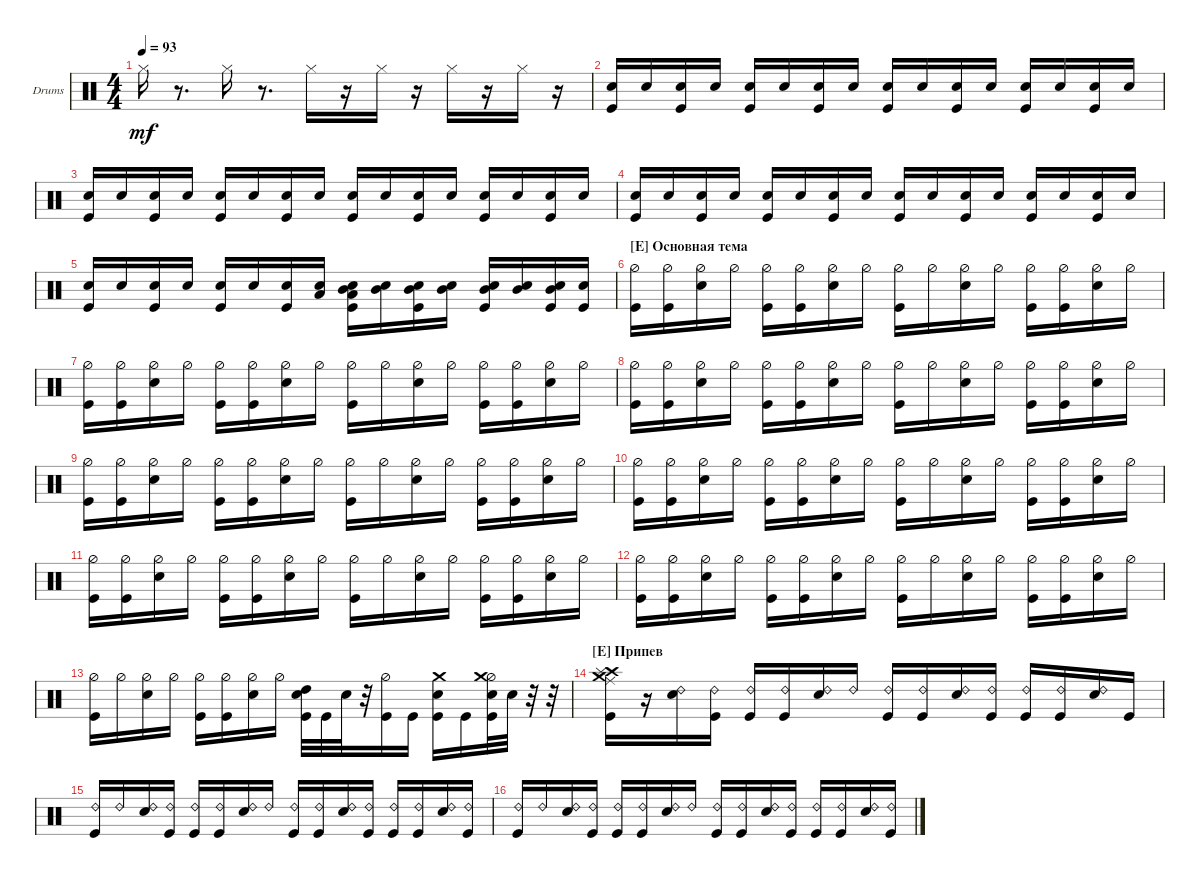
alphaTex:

\defaultSystemsLayout 4
\bracketExtendMode groupsimilarinstruments
\firstSystemTrackNameOrientation horizontal
\otherSystemsTrackNameOrientation horizontal
\track ("Drumkit" "Drums") {instrument percussion}
\staff {score}
\articulation defaults
\ts (4 4)
\tempo 93
\clef neutral
\ks c "Hi-Hat (closed)".16{dy mf}
r.8{d} "Hi-Hat (closed)".16 r.8{d} "Hi-Hat (closed)".16 r.16 "Hi-Hat (closed)".16 r.16 "Hi-Hat (closed)".16 r.16 "Hi-Hat (closed)".16 r.16 |
("Snare (hit) 2" "Kick (hit)").16 "Snare (hit) 2".16 ("Snare (hit) 2" "Kick (hit)").16 "Snare (hit) 2".16 ("Snare (hit) 2" "Kick (hit)").16 "Snare (hit) 2".16 ("Snare (hit) 2" "Kick (hit)").16 "Snare (hit) 2".16 ("Snare (hit) 2" "Kick (hit)").16 "Snare (hit) 2".16 ("Snare (hit) 2" "Kick (hit)").16 "Snare (hit) 2".16 ("Snare (hit) 2" "Kick (hit)").16 "Snare (hit) 2".16 ("Snare (hit) 2" "Kick (hit)").16 "Snare (hit) 2".16 |
("Snare (hit) 2" "Kick (hit)").16 "Snare (hit) 2".16 ("Snare (hit) 2" "Kick (hit)").16 "Snare (hit) 2".16 ("Snare (hit) 2" "Kick (hit)").16 "Snare (hit) 2".16 ("Snare (hit) 2" "Kick (hit)").16 "Snare (hit) 2".16 ("Snare (hit) 2" "Kick (hit)").16 "Snare (hit) 2".16 ("Snare (hit) 2" "Kick (hit)").16 "Snare (hit) 2".16 ("Snare (hit) 2" "Kick (hit)").16 "Snare (hit) 2".16 ("Snare (hit) 2" "Kick (hit)").16 "Snare (hit) 2".16 |
("Snare (hit) 2" "Kick (hit)").16 "Snare (hit) 2".16 ("Snare (hit) 2" "Kick (hit)").16 "Snare (hit) 2".16 ("Snare (hit) 2" "Kick (hit)").16 "Snare (hit) 2".16 ("Snare (hit) 2" "Kick (hit)").16 "Snare (hit) 2".16 ("Snare (hit) 2" "Kick (hit)").16 "Snare (hit) 2".16 ("Snare (hit) 2" "Kick (hit)").16 "Snare (hit) 2".16 ("Snare (hit) 2" "Kick (hit)").16 "Snare (hit) 2".16 ("Snare (hit) 2" "Kick (hit)").16 "Snare (hit) 2".16 |
("Snare (hit) 2" "Kick (hit)").16 "Snare (hit) 2".16 ("Snare (hit) 2" "Kick (hit)").16 "Snare (hit) 2".16 ("Snare (hit) 2" "Kick (hit)").16 "Snare (hit) 2".16 ("Snare (hit) 2" "Kick (hit)").16 ("Snare (hit) 2" "Low Tom (hit)").16 ("Snare (hit) 2" "Kick (hit)" "Low Tom (hit)" "Mid Tom (hit)").16 ("Snare (hit) 2" "Mid Tom (hit)").16 ("Kick (hit)" "Snare (hit) 2" "Mid Tom (hit)").16 ("Snare (hit) 2" "Mid Tom (hit)").16 ("Kick (hit)" "Snare (hit) 2" "Mid Tom (hit)").16 ("Snare (hit) 2" "Mid Tom (hit)").16 ("Snare (hit) 2" "Kick (hit)" "Mid Tom (hit)").16 ("Snare (hit) 2" "Kick (hit)").16 |
\section ("E" "Основная тема")
("Kick (hit)" "Hi-Hat (half)").16 ("Hi-Hat (half)" "Kick (hit)").16 ("Snare (hit) 2" "Hi-Hat (half)").16 "Hi-Hat (half)".16 ("Kick (hit)" "Hi-Hat (half)").16 ("Kick (hit)" "Hi-Hat (half)").16 ("Snare (hit) 2" "Hi-Hat (half)").16 "Hi-Hat (half)".16 ("Kick (hit)" "Hi-Hat (half)").16 "Hi-Hat (half)".16 ("Snare (hit) 2" "Hi-Hat (half)").16 "Hi-Hat (half)".16 ("Kick (hit)" "Hi-Hat (half)").16 ("Kick (hit)" "Hi-Hat (half)").16 ("Snare (hit) 2" "Hi-Hat (half)").16 "Hi-Hat (half)".16 |
("Kick (hit)" "Hi-Hat (half)").16 ("Hi-Hat (half)" "Kick (hit)").16 ("Snare (hit) 2" "Hi-Hat (half)").16 "Hi-Hat (half)".16 ("Kick (hit)" "Hi-Hat (half)").16 ("Kick (hit)" "Hi-Hat (half)").16 ("Snare (hit) 2" "Hi-Hat (half)").16 "Hi-Hat (half)".16 ("Kick (hit)" "Hi-Hat (half)").16 "Hi-Hat (half)".16 ("Snare (hit) 2" "Hi-Hat (half)").16 "Hi-Hat (half)".16 ("Kick (hit)" "Hi-Hat (half)").16 ("Kick (hit)" "Hi-Hat (half)").16 ("Snare (hit) 2" "Hi-Hat (half)").16 "Hi-Hat (half)".16 |
("Kick (hit)" "Hi-Hat (half)").16 ("Hi-Hat (half)" "Kick (hit)").16 ("Snare (hit) 2" "Hi-Hat (half)").16 "Hi-Hat (half)".16 ("Kick (hit)" "Hi-Hat (half)").16 ("Kick (hit)" "Hi-Hat (half)").16 ("Snare (hit) 2" "Hi-Hat (half)").16 "Hi-Hat (half)".16 ("Kick (hit)" "Hi-Hat (half)").16 "Hi-Hat (half)".16 ("Snare (hit) 2" "Hi-Hat (half)").16 "Hi-Hat (half)".16 ("Kick (hit)" "Hi-Hat (half)").16 ("Kick (hit)" "Hi-Hat (half)").16 ("Snare (hit) 2" "Hi-Hat (half)").16 "Hi-Hat (half)".16 |
("Kick (hit)" "Hi-Hat (half)").16 ("Hi-Hat (half)" "Kick (hit)").16 ("Snare (hit) 2" "Hi-Hat (half)").16 "Hi-Hat (half)".16 ("Kick (hit)" "Hi-Hat (half)").16 ("Kick (hit)" "Hi-Hat (half)").16 ("Snare (hit) 2" "Hi-Hat (half)").16 "Hi-Hat (half)".16 ("Kick (hit)" "Hi-Hat (half)").16 "Hi-Hat (half)".16 ("Snare (hit) 2" "Hi-Hat (half)").16 "Hi-Hat (half)".16 ("Kick (hit)" "Hi-Hat (half)").16 ("Kick (hit)" "Hi-Hat (half)").16 ("Snare (hit) 2" "Hi-Hat (half)").16 "Hi-Hat (half)".16 |
("Kick (hit)" "Hi-Hat (half)").16 ("Hi-Hat (half)" "Kick (hit)").16 ("Snare (hit) 2" "Hi-Hat (half)").16 "Hi-Hat (half)".16 ("Kick (hit)" "Hi-Hat (half)").16 ("Kick (hit)" "Hi-Hat (half)").16 ("Snare (hit) 2" "Hi-Hat (half)").16 "Hi-Hat (half)".16 ("Kick (hit)" "Hi-Hat (half)").16 "Hi-Hat (half)".16 ("Snare (hit) 2" "Hi-Hat (half)").16 "Hi-Hat (half)".16 ("Kick (hit)" "Hi-Hat (half)").16 ("Kick (hit)" "Hi-Hat (half)").16 ("Snare (hit) 2" "Hi-Hat (half)").16 "Hi-Hat (half)".16 |
("Kick (hit)" "Hi-Hat (half)").16 ("Hi-Hat (half)" "Kick (hit)").16 ("Snare (hit) 2" "Hi-Hat (half)").16 "Hi-Hat (half)".16 ("Kick (hit)" "Hi-Hat (half)").16 ("Kick (hit)" "Hi-Hat (half)").16 ("Snare (hit) 2" "Hi-Hat (half)").16 "Hi-Hat (half)".16 ("Kick (hit)" "Hi-Hat (half)").16 "Hi-Hat (half)".16 ("Snare (hit) 2" "Hi-Hat (half)").16 "Hi-Hat (half)".16 ("Kick (hit)" "Hi-Hat (half)").16 ("Kick (hit)" "Hi-Hat (half)").16 ("Snare (hit) 2" "Hi-Hat (half)").16 "Hi-Hat (half)".16 |
("Kick (hit)" "Hi-Hat (half)").16 ("Hi-Hat (half)" "Kick (hit)").16 ("Snare (hit) 2" "Hi-Hat (half)").16 "Hi-Hat (half)".16 ("Kick (hit)" "Hi-Hat (half)").16 ("Kick (hit)" "Hi-Hat (half)").16 ("Snare (hit) 2" "Hi-Hat (half)").16 "Hi-Hat (half)".16 ("Kick (hit)" "Hi-Hat (half)").16 "Hi-Hat (half)".16 ("Snare (hit) 2" "Hi-Hat (half)").16 "Hi-Hat (half)".16 ("Kick (hit)" "Hi-Hat (half)").16 ("Kick (hit)" "Hi-Hat (half)").16 ("Snare (hit) 2" "Hi-Hat (half)").16 "Hi-Hat (half)".16 |
("Kick (hit)" "Hi-Hat (half)").16 "Hi-Hat (half)".16 ("Snare (hit) 2" "Hi-Hat (half)").16 "Hi-Hat (half)".16 ("Kick (hit)" "Hi-Hat (half)").16 ("Kick (hit)" "Hi-Hat (half)").16 ("Snare (hit) 2" "Hi-Hat (half)").16 "Hi-Hat (half)".16 ("Snare (hit) 2" "Kick (hit)" "High Tom (hit)").32 "Kick (hit)".32 "Snare (hit) 2".32 r.32 ("Kick (hit)" "Hi-Hat (half)").16 "Kick (hit)".16 ("Kick (hit)" "Snare (hit) 2" "Crash medium (hit)").16 "Kick (hit)".16 ("Kick (hit)" "Snare (hit) 2" "Hi-Hat (half)" "Crash medium (hit)").32 "Snare (hit) 2".32 r.32 r.32 |
\section ("E" "Припев")
("Kick (hit)" "Crash high (hit)" "Splash (hit)" "Crash medium (hit)" "Ride (middle)").16 r.16 ("Snare (hit) 2" "Ride (bell) 2").16 ("Kick (hit)" "Ride (bell) 2").16 ("Kick (hit)" "Ride (bell) 2").16 ("Kick (hit)" "Ride (bell) 2").16 ("Snare (hit) 2" "Ride (bell) 2").16 "Ride (bell) 2".16 ("Kick (hit)" "Ride (bell) 2").16 ("Kick (hit)" "Ride (bell) 2").16 ("Snare (hit) 2" "Ride (bell) 2").16 ("Kick (hit)" "Ride (bell) 2").16 ("Kick (hit)" "Ride (bell) 2").16 ("Kick (hit)" "Ride (bell) 2").16 ("Snare (hit) 2" "Ride (bell) 2").16 "Kick (hit)".16 |
\scale
0.278339 ("Kick (hit)" "Ride (bell) 2").16 "Ride (bell) 2".16 ("Snare (hit) 2" "Ride (bell) 2").16 ("Kick (hit)" "Ride (bell) 2").16 ("Kick (hit)" "Ride (bell) 2").16 ("Kick (hit)" "Ride (bell) 2").16 ("Snare (hit) 2" "Ride (bell) 2").16 "Ride (bell) 2".16 ("Kick (hit)" "Ride (bell) 2").16 ("Kick (hit)" "Ride (bell) 2").16 ("Snare (hit) 2" "Ride (bell) 2").16 ("Kick (hit)" "Ride (bell) 2").16 ("Kick (hit)" "Ride (bell) 2").16 ("Kick (hit)" "Ride (bell) 2").16 ("Snare (hit) 2" "Ride (bell) 2").16 ("Kick (hit)" "Ride (bell) 2").16 |
("Kick (hit)" "Ride (bell) 2").16 "Ride (bell) 2".16 ("Snare (hit) 2" "Ride (bell) 2").16 ("Kick (hit)" "Ride (bell) 2").16 ("Kick (hit)" "Ride (bell) 2").16 ("Kick (hit)" "Ride (bell) 2").16 ("Snare (hit) 2" "Ride (bell) 2").16 "Ride (bell) 2".16 ("Kick (hit)" "Ride (bell) 2").16 ("Kick (hit)" "Ride (bell) 2").16 ("Snare (hit) 2" "Ride (bell) 2").16 ("Kick (hit)" "Ride (bell) 2").16 ("Kick (hit)" "Ride (bell) 2").16 ("Kick (hit)" "Ride (bell) 2").16 ("Snare (hit) 2" "Ride (bell) 2").16 ("Kick (hit)" "Ride (bell) 2").16
